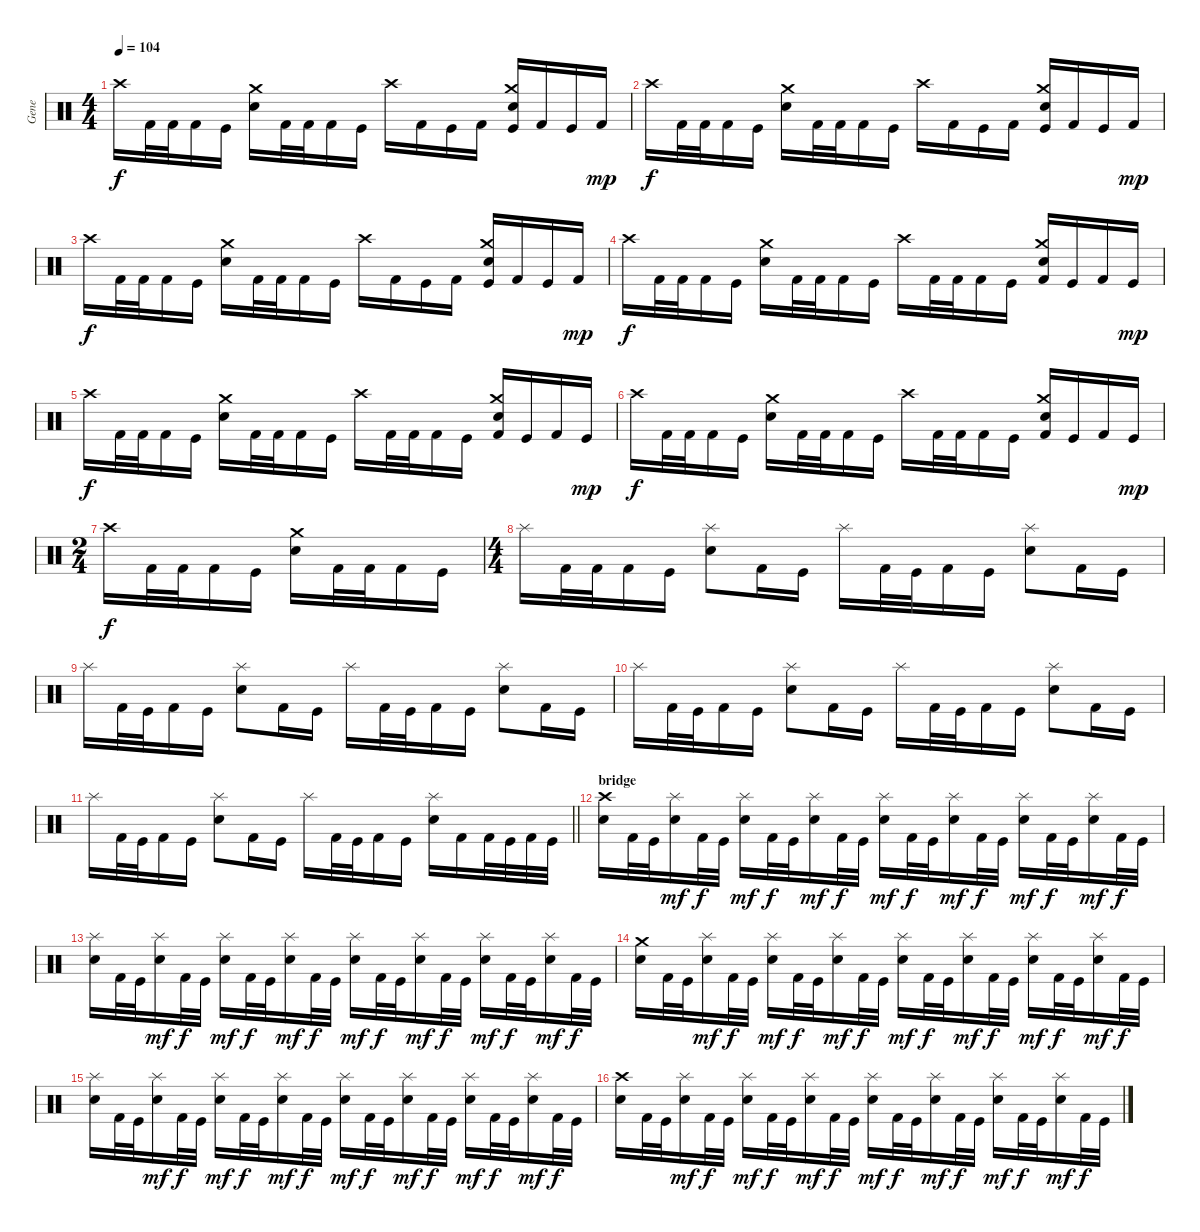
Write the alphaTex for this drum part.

\track ("Gene" "Gene") {instrument percussion}
\staff {score}
\articulation defaults
\ts (4 4)
\tempo 104
\clef neutral
\ks c "Crash high (hit)".16{dy f} "Kick (hit) 2".32 "Kick (hit) 2".32 "Kick (hit) 2".16 "Kick (hit)".16
("Crash medium (hit)" "Snare (hit) 2").16 "Kick (hit) 2".32 "Kick (hit) 2".32 "Kick (hit) 2".16 "Kick (hit)".16 "Crash high (hit)".16 "Kick (hit) 2".16 "Kick (hit)".16 "Kick (hit) 2".16 ("Crash medium (hit)" "Snare (hit) 2" "Kick (hit)").16 "Kick (hit) 2".16 "Kick (hit)".16 "Kick (hit) 2".16{dy mp} |
"Crash high (hit)".16{dy f} "Kick (hit) 2".32 "Kick (hit) 2".32 "Kick (hit) 2".16 "Kick (hit)".16 ("Crash medium (hit)" "Snare (hit) 2").16 "Kick (hit) 2".32 "Kick (hit) 2".32 "Kick (hit) 2".16 "Kick (hit)".16 "Crash high (hit)".16 "Kick (hit) 2".16 "Kick (hit)".16 "Kick (hit) 2".16 ("Crash medium (hit)" "Snare (hit) 2" "Kick (hit)").16 "Kick (hit) 2".16 "Kick (hit)".16 "Kick (hit) 2".16{dy mp} |
"Crash high (hit)".16{dy f} "Kick (hit) 2".32 "Kick (hit) 2".32 "Kick (hit) 2".16 "Kick (hit)".16 ("Crash medium (hit)" "Snare (hit) 2").16 "Kick (hit) 2".32 "Kick (hit) 2".32 "Kick (hit) 2".16 "Kick (hit)".16 "Crash high (hit)".16 "Kick (hit) 2".16 "Kick (hit)".16 "Kick (hit) 2".16 ("Crash medium (hit)" "Snare (hit) 2" "Kick (hit)").16 "Kick (hit) 2".16 "Kick (hit)".16 "Kick (hit) 2".16{dy mp} |
"Crash high (hit)".16{dy f} "Kick (hit) 2".32 "Kick (hit) 2".32 "Kick (hit) 2".16 "Kick (hit)".16 ("Crash medium (hit)" "Snare (hit) 2").16 "Kick (hit) 2".32 "Kick (hit) 2".32 "Kick (hit) 2".16 "Kick (hit)".16 "Crash high (hit)".16 "Kick (hit) 2".32 "Kick (hit) 2".32 "Kick (hit) 2".16 "Kick (hit)".16 ("Crash medium (hit)" "Snare (hit) 2" "Kick (hit) 2").16 "Kick (hit)".16 "Kick (hit) 2".16 "Kick (hit)".16{dy mp} |
"Crash high (hit)".16{dy f} "Kick (hit) 2".32 "Kick (hit) 2".32 "Kick (hit) 2".16 "Kick (hit)".16 ("Crash medium (hit)" "Snare (hit) 2").16 "Kick (hit) 2".32 "Kick (hit) 2".32 "Kick (hit) 2".16 "Kick (hit)".16 "Crash high (hit)".16 "Kick (hit) 2".32 "Kick (hit) 2".32 "Kick (hit) 2".16 "Kick (hit)".16 ("Crash medium (hit)" "Snare (hit) 2" "Kick (hit) 2").16 "Kick (hit)".16 "Kick (hit) 2".16 "Kick (hit)".16{dy mp} |
"Crash high (hit)".16{dy f} "Kick (hit) 2".32 "Kick (hit) 2".32 "Kick (hit) 2".16 "Kick (hit)".16 ("Crash medium (hit)" "Snare (hit) 2").16 "Kick (hit) 2".32 "Kick (hit) 2".32 "Kick (hit) 2".16 "Kick (hit)".16 "Crash high (hit)".16 "Kick (hit) 2".32 "Kick (hit) 2".32 "Kick (hit) 2".16 "Kick (hit)".16 ("Crash medium (hit)" "Snare (hit) 2" "Kick (hit) 2").16 "Kick (hit)".16 "Kick (hit) 2".16 "Kick (hit)".16{dy mp} |
\ts (2 4)
"Crash high (hit)".16{dy f} "Kick (hit) 2".32 "Kick (hit) 2".32 "Kick (hit) 2".16 "Kick (hit)".16 ("Crash medium (hit)" "Snare (hit) 2").16 "Kick (hit) 2".32 "Kick (hit) 2".32 "Kick (hit) 2".16 "Kick (hit)".16 |
\ts (4 4)
"Splash (hit)".16 "Kick (hit) 2".32 "Kick (hit) 2".32 "Kick (hit) 2".16 "Kick (hit)".16 ("Splash (hit)" "Snare (hit) 2").8 "Kick (hit) 2".16 "Kick (hit)".16 "Splash (hit)".16 "Kick (hit) 2".32 "Kick (hit)".32 "Kick (hit) 2".16 "Kick (hit)".16 ("Splash (hit)" "Snare (hit) 2").8 "Kick (hit) 2".16 "Kick (hit)".16 |
"Splash (hit)".16 "Kick (hit) 2".32 "Kick (hit)".32 "Kick (hit) 2".16 "Kick (hit)".16 ("Splash (hit)" "Snare (hit) 2").8 "Kick (hit) 2".16 "Kick (hit)".16 "Splash (hit)".16 "Kick (hit) 2".32 "Kick (hit)".32 "Kick (hit) 2".16 "Kick (hit)".16 ("Splash (hit)" "Snare (hit) 2").8 "Kick (hit) 2".16 "Kick (hit)".16 |
"Splash (hit)".16 "Kick (hit) 2".32 "Kick (hit)".32 "Kick (hit) 2".16 "Kick (hit)".16 ("Splash (hit)" "Snare (hit) 2").8 "Kick (hit) 2".16 "Kick (hit)".16 "Splash (hit)".16 "Kick (hit) 2".32 "Kick (hit)".32 "Kick (hit) 2".16 "Kick (hit)".16 ("Splash (hit)" "Snare (hit) 2").8 "Kick (hit) 2".16 "Kick (hit)".16 |
\barLineRight lightlight "Splash (hit)".16 "Kick (hit) 2".32 "Kick (hit)".32 "Kick (hit) 2".16 "Kick (hit)".16
("Splash (hit)" "Snare (hit) 2").8 "Kick (hit) 2".16 "Kick (hit)".16 "Splash (hit)".16 "Kick (hit) 2".32 "Kick (hit)".32 "Kick (hit) 2".16 "Kick (hit)".16 ("Splash (hit)" "Snare (hit) 2").16 "Kick (hit) 2".16 "Kick (hit) 2".32 "Kick (hit)".32 "Kick (hit) 2".32 "Kick (hit)".32 |
\section ("" "bridge")
("Crash high (hit)" "Snare (hit) 2").16 "Kick (hit) 2".32 "Kick (hit)".32 ("Splash (hit)" "Snare (hit) 2").16{dy mf} "Kick (hit) 2".32{dy f} "Kick (hit)".32 ("Splash (hit)" "Snare (hit) 2").16{dy mf} "Kick (hit) 2".32{dy f} "Kick (hit)".32 ("Splash (hit)" "Snare (hit) 2").16{dy mf} "Kick (hit) 2".32{dy f} "Kick (hit)".32 ("Splash (hit)" "Snare (hit) 2").16{dy mf} "Kick (hit) 2".32{dy f} "Kick (hit)".32 ("Splash (hit)" "Snare (hit) 2").16{dy mf} "Kick (hit) 2".32{dy f} "Kick (hit)".32 ("Splash (hit)" "Snare (hit) 2").16{dy mf} "Kick (hit) 2".32{dy f} "Kick (hit)".32 ("Splash (hit)" "Snare (hit) 2").16{dy mf} "Kick (hit) 2".32{dy f} "Kick (hit)".32 |
("Splash (hit)" "Snare (hit) 2").16 "Kick (hit) 2".32 "Kick (hit)".32 ("Splash (hit)" "Snare (hit) 2").16{dy mf} "Kick (hit) 2".32{dy f} "Kick (hit)".32 ("Splash (hit)" "Snare (hit) 2").16{dy mf} "Kick (hit) 2".32{dy f} "Kick (hit)".32 ("Splash (hit)" "Snare (hit) 2").16{dy mf} "Kick (hit) 2".32{dy f} "Kick (hit)".32 ("Splash (hit)" "Snare (hit) 2").16{dy mf} "Kick (hit) 2".32{dy f} "Kick (hit)".32 ("Splash (hit)" "Snare (hit) 2").16{dy mf} "Kick (hit) 2".32{dy f} "Kick (hit)".32 ("Splash (hit)" "Snare (hit) 2").16{dy mf} "Kick (hit) 2".32{dy f} "Kick (hit)".32 ("Splash (hit)" "Snare (hit) 2").16{dy mf} "Kick (hit) 2".32{dy f} "Kick (hit)".32 |
("Crash medium (hit)" "Snare (hit) 2").16 "Kick (hit) 2".32 "Kick (hit)".32 ("Splash (hit)" "Snare (hit) 2").16{dy mf} "Kick (hit) 2".32{dy f} "Kick (hit)".32 ("Splash (hit)" "Snare (hit) 2").16{dy mf} "Kick (hit) 2".32{dy f} "Kick (hit)".32 ("Splash (hit)" "Snare (hit) 2").16{dy mf} "Kick (hit) 2".32{dy f} "Kick (hit)".32 ("Splash (hit)" "Snare (hit) 2").16{dy mf} "Kick (hit) 2".32{dy f} "Kick (hit)".32 ("Splash (hit)" "Snare (hit) 2").16{dy mf} "Kick (hit) 2".32{dy f} "Kick (hit)".32 ("Splash (hit)" "Snare (hit) 2").16{dy mf} "Kick (hit) 2".32{dy f} "Kick (hit)".32 ("Splash (hit)" "Snare (hit) 2").16{dy mf} "Kick (hit) 2".32{dy f} "Kick (hit)".32 |
("Splash (hit)" "Snare (hit) 2").16 "Kick (hit) 2".32 "Kick (hit)".32 ("Splash (hit)" "Snare (hit) 2").16{dy mf} "Kick (hit) 2".32{dy f} "Kick (hit)".32 ("Splash (hit)" "Snare (hit) 2").16{dy mf} "Kick (hit) 2".32{dy f} "Kick (hit)".32 ("Splash (hit)" "Snare (hit) 2").16{dy mf} "Kick (hit) 2".32{dy f} "Kick (hit)".32 ("Splash (hit)" "Snare (hit) 2").16{dy mf} "Kick (hit) 2".32{dy f} "Kick (hit)".32 ("Splash (hit)" "Snare (hit) 2").16{dy mf} "Kick (hit) 2".32{dy f} "Kick (hit)".32 ("Splash (hit)" "Snare (hit) 2").16{dy mf} "Kick (hit) 2".32{dy f} "Kick (hit)".32 ("Splash (hit)" "Snare (hit) 2").16{dy mf} "Kick (hit) 2".32{dy f} "Kick (hit)".32 |
("Crash high (hit)" "Snare (hit) 2").16 "Kick (hit) 2".32 "Kick (hit)".32 ("Splash (hit)" "Snare (hit) 2").16{dy mf} "Kick (hit) 2".32{dy f} "Kick (hit)".32 ("Splash (hit)" "Snare (hit) 2").16{dy mf} "Kick (hit) 2".32{dy f} "Kick (hit)".32 ("Splash (hit)" "Snare (hit) 2").16{dy mf} "Kick (hit) 2".32{dy f} "Kick (hit)".32 ("Splash (hit)" "Snare (hit) 2").16{dy mf} "Kick (hit) 2".32{dy f} "Kick (hit)".32 ("Splash (hit)" "Snare (hit) 2").16{dy mf} "Kick (hit) 2".32{dy f} "Kick (hit)".32 ("Splash (hit)" "Snare (hit) 2").16{dy mf} "Kick (hit) 2".32{dy f} "Kick (hit)".32 ("Splash (hit)" "Snare (hit) 2").16{dy mf} "Kick (hit) 2".32{dy f} "Kick (hit)".32
